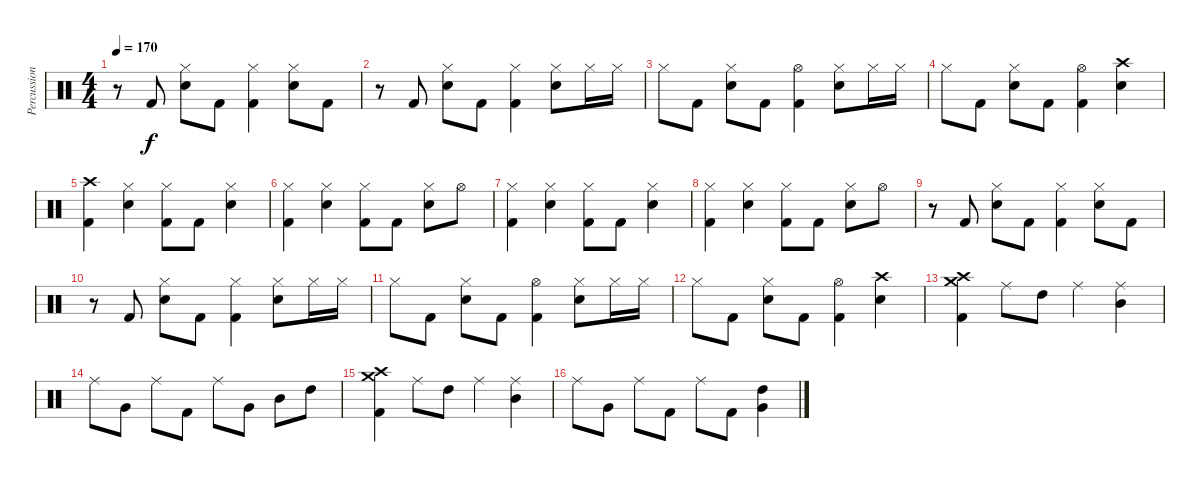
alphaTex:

\track ("Percussion" "Percussion") {instrument percussion}
\staff {score}
\articulation defaults
\ts (4 4)
\tempo 170
\clef neutral
\ks c
r.8{dy f} "Kick (hit) 2".8 ("Hi-Hat (closed)" "Snare (hit) 2").8 "Kick (hit) 2".8 ("Hi-Hat (closed)" "Kick (hit) 2").4 ("Hi-Hat (closed)" "Snare (hit) 2").8 "Kick (hit) 2".8 |
r.8 "Kick (hit) 2".8 ("Hi-Hat (closed)" "Snare (hit) 2").8 "Kick (hit) 2".8 ("Hi-Hat (closed)" "Kick (hit) 2").4 ("Hi-Hat (closed)" "Snare (hit) 2").8 "Hi-Hat (closed)".16 "Hi-Hat (closed)".16 |
"Hi-Hat (closed)".8 "Kick (hit) 2".8 ("Hi-Hat (closed)" "Snare (hit) 2").8 "Kick (hit) 2".8 ("Hi-Hat (open)" "Kick (hit) 2").4 ("Hi-Hat (closed)" "Snare (hit) 2").8 "Hi-Hat (closed)".16 "Hi-Hat (closed)".16 |
"Hi-Hat (closed)".8 "Kick (hit) 2".8 ("Hi-Hat (closed)" "Snare (hit) 2").8 "Kick (hit) 2".8 ("Hi-Hat (open)" "Kick (hit) 2").4 ("Crash high (hit)" "Snare (hit) 2").4 |
("Crash high (hit)" "Kick (hit) 2").4 ("Hi-Hat (closed)" "Snare (hit) 2").4 ("Hi-Hat (closed)" "Kick (hit) 2").8 "Kick (hit) 2".8 ("Hi-Hat (closed)" "Snare (hit) 2").4 |
("Hi-Hat (closed)" "Kick (hit) 2").4 ("Hi-Hat (closed)" "Snare (hit) 2").4 ("Hi-Hat (closed)" "Kick (hit) 2").8 "Kick (hit) 2".8 ("Hi-Hat (closed)" "Snare (hit) 2").8 "Hi-Hat (open)".8 |
("Hi-Hat (closed)" "Kick (hit) 2").4 ("Hi-Hat (closed)" "Snare (hit) 2").4 ("Hi-Hat (closed)" "Kick (hit) 2").8 "Kick (hit) 2".8 ("Hi-Hat (closed)" "Snare (hit) 2").4 |
("Hi-Hat (closed)" "Kick (hit) 2").4 ("Hi-Hat (closed)" "Snare (hit) 2").4 ("Hi-Hat (closed)" "Kick (hit) 2").8 "Kick (hit) 2".8 ("Hi-Hat (closed)" "Snare (hit) 2").8 "Hi-Hat (open)".8 |
r.8 "Kick (hit) 2".8 ("Hi-Hat (closed)" "Snare (hit) 2").8 "Kick (hit) 2".8 ("Hi-Hat (closed)" "Kick (hit) 2").4 ("Hi-Hat (closed)" "Snare (hit) 2").8 "Kick (hit) 2".8 |
r.8 "Kick (hit) 2".8 ("Hi-Hat (closed)" "Snare (hit) 2").8 "Kick (hit) 2".8 ("Hi-Hat (closed)" "Kick (hit) 2").4 ("Hi-Hat (closed)" "Snare (hit) 2").8 "Hi-Hat (closed)".16 "Hi-Hat (closed)".16 |
"Hi-Hat (closed)".8 "Kick (hit) 2".8 ("Hi-Hat (closed)" "Snare (hit) 2").8 "Kick (hit) 2".8 ("Hi-Hat (open)" "Kick (hit) 2").4 ("Hi-Hat (closed)" "Snare (hit) 2").8 "Hi-Hat (closed)".16 "Hi-Hat (closed)".16 |
"Hi-Hat (closed)".8 "Kick (hit) 2".8 ("Hi-Hat (closed)" "Snare (hit) 2").8 "Kick (hit) 2".8 ("Hi-Hat (open)" "Kick (hit) 2").4 ("Crash high (hit)" "Snare (hit) 2").4 |
("Crash medium (hit)" "Crash high (hit)" "Kick (hit) 2").4 "Ride (middle)".8 "High Tom (hit)".8 "Ride (middle)".4 ("Mid Tom (hit)" "Ride (middle)").4 |
"Ride (middle)".8 "Very Low Tom (hit)".8 "Ride (middle)".8 "Kick (hit) 2".8 "Ride (middle)".8 "Very Low Tom (hit)".8 "Mid Tom (hit)".8 "High Tom (hit)".8 |
("Crash medium (hit)" "Crash high (hit)" "Kick (hit) 2").4 "Ride (middle)".8 "High Tom (hit)".8 "Ride (middle)".4 ("Mid Tom (hit)" "Ride (middle)").4 |
"Ride (middle)".8 "Very Low Tom (hit)".8 "Ride (middle)".8 "Kick (hit) 2".8 "Ride (middle)".8 "Kick (hit) 2".8 ("High Tom (hit)" "Very Low Tom (hit)").4
